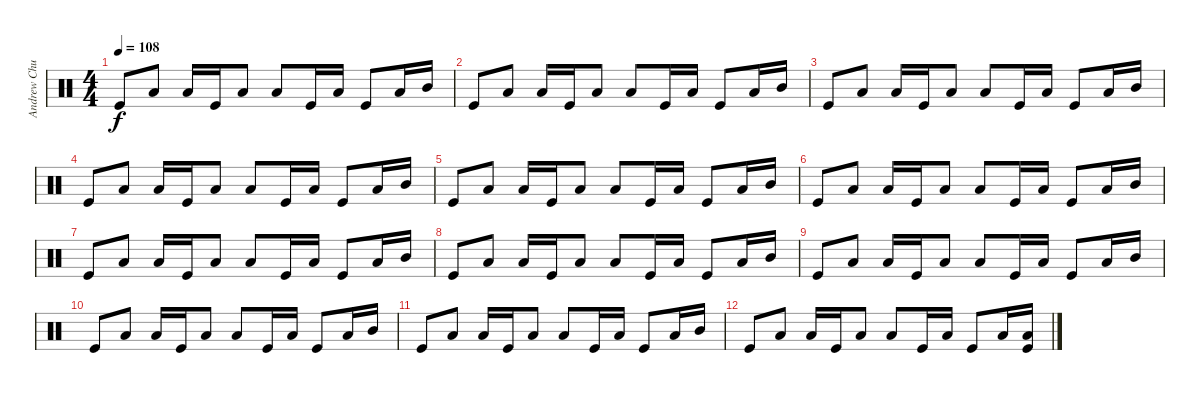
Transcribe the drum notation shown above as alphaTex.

\track ("Andrew Chudy - Bassdrum" "Andrew Chu") {instrument percussion}
\staff {score}
\articulation defaults
\ts (4 4)
\tempo 108
\clef neutral
\ks c "Kick (hit)".8{dy f} "Low Floor Tom (hit)".8 "Low Floor Tom (hit)".16 "Kick (hit)".16 "Low Floor Tom (hit)".8 "Low Floor Tom (hit)".8 "Kick (hit)".16 "Low Floor Tom (hit)".16 "Kick (hit)".8 "Low Floor Tom (hit)".16 "Mid Tom (hit)".16
|
"Kick (hit)".8 "Low Floor Tom (hit)".8 "Low Floor Tom (hit)".16 "Kick (hit)".16 "Low Floor Tom (hit)".8 "Low Floor Tom (hit)".8 "Kick (hit)".16 "Low Floor Tom (hit)".16 "Kick (hit)".8 "Low Floor Tom (hit)".16 "Mid Tom (hit)".16 |
"Kick (hit)".8 "Low Floor Tom (hit)".8 "Low Floor Tom (hit)".16 "Kick (hit)".16 "Low Floor Tom (hit)".8 "Low Floor Tom (hit)".8 "Kick (hit)".16 "Low Floor Tom (hit)".16 "Kick (hit)".8 "Low Floor Tom (hit)".16 "Mid Tom (hit)".16 |
"Kick (hit)".8 "Low Floor Tom (hit)".8 "Low Floor Tom (hit)".16 "Kick (hit)".16 "Low Floor Tom (hit)".8 "Low Floor Tom (hit)".8 "Kick (hit)".16 "Low Floor Tom (hit)".16 "Kick (hit)".8 "Low Floor Tom (hit)".16 "Mid Tom (hit)".16 |
"Kick (hit)".8 "Low Floor Tom (hit)".8 "Low Floor Tom (hit)".16 "Kick (hit)".16 "Low Floor Tom (hit)".8 "Low Floor Tom (hit)".8 "Kick (hit)".16 "Low Floor Tom (hit)".16 "Kick (hit)".8 "Low Floor Tom (hit)".16 "Mid Tom (hit)".16 |
"Kick (hit)".8 "Low Floor Tom (hit)".8 "Low Floor Tom (hit)".16 "Kick (hit)".16 "Low Floor Tom (hit)".8 "Low Floor Tom (hit)".8 "Kick (hit)".16 "Low Floor Tom (hit)".16 "Kick (hit)".8 "Low Floor Tom (hit)".16 "Mid Tom (hit)".16 |
"Kick (hit)".8 "Low Floor Tom (hit)".8 "Low Floor Tom (hit)".16 "Kick (hit)".16 "Low Floor Tom (hit)".8 "Low Floor Tom (hit)".8 "Kick (hit)".16 "Low Floor Tom (hit)".16 "Kick (hit)".8 "Low Floor Tom (hit)".16 "Mid Tom (hit)".16 |
"Kick (hit)".8 "Low Floor Tom (hit)".8 "Low Floor Tom (hit)".16 "Kick (hit)".16 "Low Floor Tom (hit)".8 "Low Floor Tom (hit)".8 "Kick (hit)".16 "Low Floor Tom (hit)".16 "Kick (hit)".8 "Low Floor Tom (hit)".16 "Mid Tom (hit)".16 |
"Kick (hit)".8 "Low Floor Tom (hit)".8 "Low Floor Tom (hit)".16 "Kick (hit)".16 "Low Floor Tom (hit)".8 "Low Floor Tom (hit)".8 "Kick (hit)".16 "Low Floor Tom (hit)".16 "Kick (hit)".8 "Low Floor Tom (hit)".16 "Mid Tom (hit)".16 |
"Kick (hit)".8 "Low Floor Tom (hit)".8 "Low Floor Tom (hit)".16 "Kick (hit)".16 "Low Floor Tom (hit)".8 "Low Floor Tom (hit)".8 "Kick (hit)".16 "Low Floor Tom (hit)".16 "Kick (hit)".8 "Low Floor Tom (hit)".16 "Mid Tom (hit)".16 |
"Kick (hit)".8 "Low Floor Tom (hit)".8 "Low Floor Tom (hit)".16 "Kick (hit)".16 "Low Floor Tom (hit)".8 "Low Floor Tom (hit)".8 "Kick (hit)".16 "Low Floor Tom (hit)".16 "Kick (hit)".8 "Low Floor Tom (hit)".16 "Mid Tom (hit)".16 |
"Kick (hit)".8 "Low Floor Tom (hit)".8 "Low Floor Tom (hit)".16 "Kick (hit)".16 "Low Floor Tom (hit)".8 "Low Floor Tom (hit)".8 "Kick (hit)".16 "Low Floor Tom (hit)".16 "Kick (hit)".8 "Low Floor Tom (hit)".16 ("Low Floor Tom (hit)" "Kick (hit)").16
